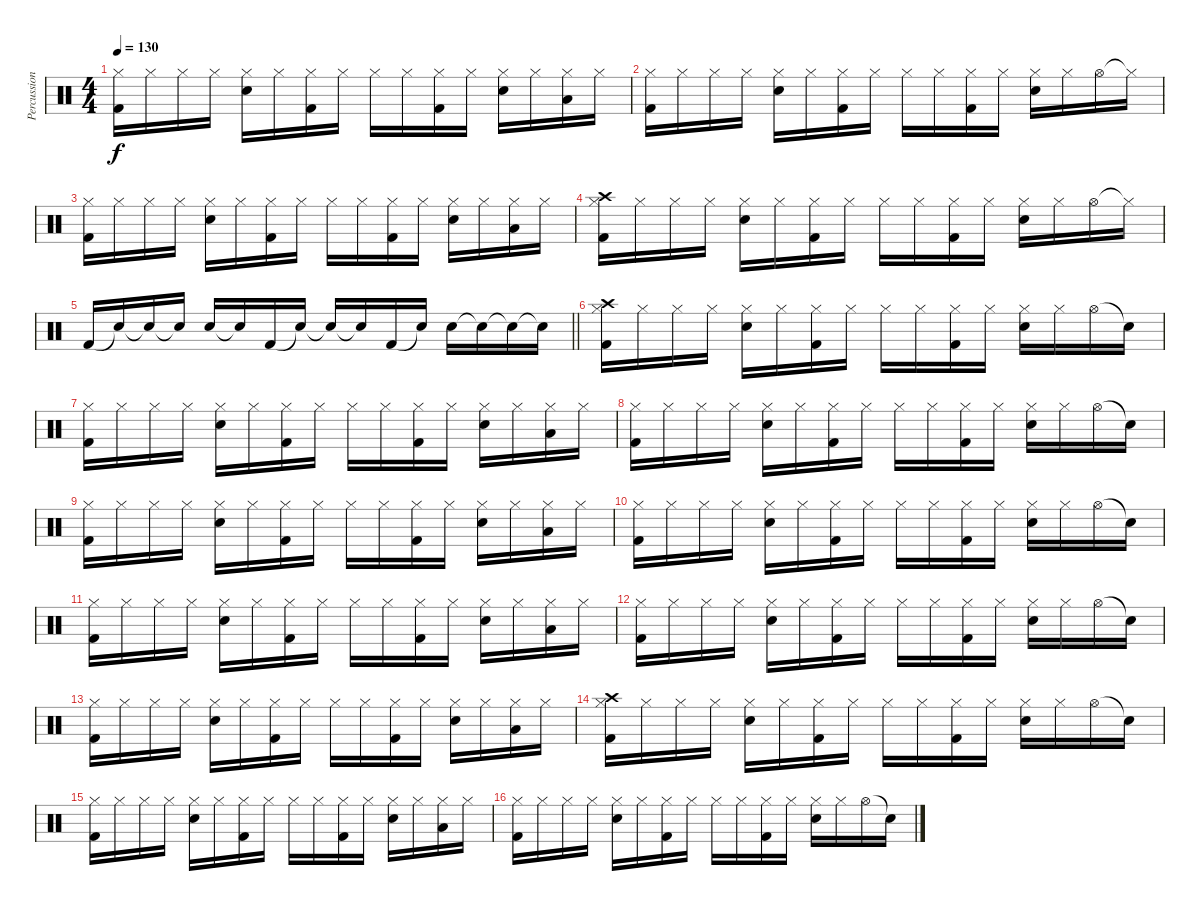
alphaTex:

\track ("Percussion" "Percussion") {instrument percussion}
\staff {score}
\articulation defaults
\ts (4 4)
\tempo 130
\clef neutral
\ks c
("Hi-Hat (closed)" "Kick (hit) 2").16{dy f} "Hi-Hat (closed)".16 "Hi-Hat (closed)".16 "Hi-Hat (closed)".16 ("Hi-Hat (closed)" "Snare (hit) 2").16 "Hi-Hat (closed)".16 ("Hi-Hat (closed)" "Kick (hit) 2").16 "Hi-Hat (closed)".16 "Hi-Hat (closed)".16 "Hi-Hat (closed)".16 ("Hi-Hat (closed)" "Kick (hit) 2").16 "Hi-Hat (closed)".16 ("Hi-Hat (closed)" "Snare (hit) 2").16 "Hi-Hat (closed)".16 ("Hi-Hat (closed)" "Low Tom (hit)").16 "Hi-Hat (closed)".16 |
("Hi-Hat (closed)" "Kick (hit) 2").16 "Hi-Hat (closed)".16 "Hi-Hat (closed)".16 "Hi-Hat (closed)".16 ("Hi-Hat (closed)" "Snare (hit) 2").16 "Hi-Hat (closed)".16 ("Hi-Hat (closed)" "Kick (hit) 2").16 "Hi-Hat (closed)".16 "Hi-Hat (closed)".16 "Hi-Hat (closed)".16 ("Hi-Hat (closed)" "Kick (hit) 2").16 "Hi-Hat (closed)".16 ("Hi-Hat (closed)" "Snare (hit) 2").16 "Hi-Hat (closed)".16 "Hi-Hat (open)".16 "Hi-Hat (closed)"{t}.16 |
("Hi-Hat (closed)" "Kick (hit) 2").16 "Hi-Hat (closed)".16 "Hi-Hat (closed)".16 "Hi-Hat (closed)".16 ("Hi-Hat (closed)" "Snare (hit) 2").16 "Hi-Hat (closed)".16 ("Hi-Hat (closed)" "Kick (hit) 2").16 "Hi-Hat (closed)".16 "Hi-Hat (closed)".16 "Hi-Hat (closed)".16 ("Hi-Hat (closed)" "Kick (hit) 2").16 "Hi-Hat (closed)".16 ("Hi-Hat (closed)" "Snare (hit) 2").16 "Hi-Hat (closed)".16 ("Hi-Hat (closed)" "Low Tom (hit)").16 "Hi-Hat (closed)".16 |
("Hi-Hat (closed)" "Crash high (hit)" "Kick (hit) 2").16 "Hi-Hat (closed)".16 "Hi-Hat (closed)".16 "Hi-Hat (closed)".16 ("Hi-Hat (closed)" "Snare (hit) 2").16 "Hi-Hat (closed)".16 ("Hi-Hat (closed)" "Kick (hit) 2").16 "Hi-Hat (closed)".16 "Hi-Hat (closed)".16 "Hi-Hat (closed)".16 ("Hi-Hat (closed)" "Kick (hit) 2").16 "Hi-Hat (closed)".16 ("Hi-Hat (closed)" "Snare (hit) 2").16 "Hi-Hat (closed)".16 "Hi-Hat (open)".16 "Hi-Hat (closed)"{t}.16 |
\barLineRight lightlight "Kick (hit) 2".16 "Snare (hit)"{t}.16 "Snare (hit)"{t}.16 "Snare (hit)"{t}.16 "Hand Clap (hit)".16 "Snare (hit)"{t}.16 "Kick (hit) 2".16 "Snare (hit)"{t}.16 "Snare (hit)"{t}.16 "Snare (hit)"{t}.16 "Kick (hit) 2".16 "Snare (hit)"{t}.16 "Hand Clap (hit)".16 "Snare (hit)"{t}.16 "Snare (hit)"{t}.16 "Snare (hit)"{t}.16
|
("Hi-Hat (closed)" "Crash high (hit)" "Kick (hit) 2").16 "Hi-Hat (closed)".16 "Hi-Hat (closed)".16 "Hi-Hat (closed)".16 ("Hi-Hat (closed)" "Snare (hit) 2").16 "Hi-Hat (closed)".16 ("Hi-Hat (closed)" "Kick (hit) 2").16 "Hi-Hat (closed)".16 "Hi-Hat (closed)".16 "Hi-Hat (closed)".16 ("Hi-Hat (closed)" "Kick (hit) 2").16 "Hi-Hat (closed)".16 ("Hi-Hat (closed)" "Snare (hit) 2").16 "Hi-Hat (closed)".16 "Hi-Hat (open)".16 "Snare (hit)"{t}.16 |
("Hi-Hat (closed)" "Kick (hit) 2").16 "Hi-Hat (closed)".16 "Hi-Hat (closed)".16 "Hi-Hat (closed)".16 ("Hi-Hat (closed)" "Snare (hit) 2").16 "Hi-Hat (closed)".16 ("Hi-Hat (closed)" "Kick (hit) 2").16 "Hi-Hat (closed)".16 "Hi-Hat (closed)".16 "Hi-Hat (closed)".16 ("Hi-Hat (closed)" "Kick (hit) 2").16 "Hi-Hat (closed)".16 ("Hi-Hat (closed)" "Snare (hit) 2").16 "Hi-Hat (closed)".16 ("Hi-Hat (closed)" "Low Tom (hit)").16 "Hi-Hat (closed)".16 |
("Hi-Hat (closed)" "Kick (hit) 2").16 "Hi-Hat (closed)".16 "Hi-Hat (closed)".16 "Hi-Hat (closed)".16 ("Hi-Hat (closed)" "Snare (hit) 2").16 "Hi-Hat (closed)".16 ("Hi-Hat (closed)" "Kick (hit) 2").16 "Hi-Hat (closed)".16 "Hi-Hat (closed)".16 "Hi-Hat (closed)".16 ("Hi-Hat (closed)" "Kick (hit) 2").16 "Hi-Hat (closed)".16 ("Hi-Hat (closed)" "Snare (hit) 2").16 "Hi-Hat (closed)".16 "Hi-Hat (open)".16 "Snare (hit)"{t}.16 |
("Hi-Hat (closed)" "Kick (hit) 2").16 "Hi-Hat (closed)".16 "Hi-Hat (closed)".16 "Hi-Hat (closed)".16 ("Hi-Hat (closed)" "Snare (hit) 2").16 "Hi-Hat (closed)".16 ("Hi-Hat (closed)" "Kick (hit) 2").16 "Hi-Hat (closed)".16 "Hi-Hat (closed)".16 "Hi-Hat (closed)".16 ("Hi-Hat (closed)" "Kick (hit) 2").16 "Hi-Hat (closed)".16 ("Hi-Hat (closed)" "Snare (hit) 2").16 "Hi-Hat (closed)".16 ("Hi-Hat (closed)" "Low Tom (hit)").16 "Hi-Hat (closed)".16 |
("Hi-Hat (closed)" "Kick (hit) 2").16 "Hi-Hat (closed)".16 "Hi-Hat (closed)".16 "Hi-Hat (closed)".16 ("Hi-Hat (closed)" "Snare (hit) 2").16 "Hi-Hat (closed)".16 ("Hi-Hat (closed)" "Kick (hit) 2").16 "Hi-Hat (closed)".16 "Hi-Hat (closed)".16 "Hi-Hat (closed)".16 ("Hi-Hat (closed)" "Kick (hit) 2").16 "Hi-Hat (closed)".16 ("Hi-Hat (closed)" "Snare (hit) 2").16 "Hi-Hat (closed)".16 "Hi-Hat (open)".16 "Snare (hit)"{t}.16 |
("Hi-Hat (closed)" "Kick (hit) 2").16 "Hi-Hat (closed)".16 "Hi-Hat (closed)".16 "Hi-Hat (closed)".16 ("Hi-Hat (closed)" "Snare (hit) 2").16 "Hi-Hat (closed)".16 ("Hi-Hat (closed)" "Kick (hit) 2").16 "Hi-Hat (closed)".16 "Hi-Hat (closed)".16 "Hi-Hat (closed)".16 ("Hi-Hat (closed)" "Kick (hit) 2").16 "Hi-Hat (closed)".16 ("Hi-Hat (closed)" "Snare (hit) 2").16 "Hi-Hat (closed)".16 ("Hi-Hat (closed)" "Low Tom (hit)").16 "Hi-Hat (closed)".16 |
("Hi-Hat (closed)" "Kick (hit) 2").16 "Hi-Hat (closed)".16 "Hi-Hat (closed)".16 "Hi-Hat (closed)".16 ("Hi-Hat (closed)" "Snare (hit) 2").16 "Hi-Hat (closed)".16 ("Hi-Hat (closed)" "Kick (hit) 2").16 "Hi-Hat (closed)".16 "Hi-Hat (closed)".16 "Hi-Hat (closed)".16 ("Hi-Hat (closed)" "Kick (hit) 2").16 "Hi-Hat (closed)".16 ("Hi-Hat (closed)" "Snare (hit) 2").16 "Hi-Hat (closed)".16 "Hi-Hat (open)".16 "Snare (hit)"{t}.16 |
("Hi-Hat (closed)" "Kick (hit) 2").16 "Hi-Hat (closed)".16 "Hi-Hat (closed)".16 "Hi-Hat (closed)".16 ("Hi-Hat (closed)" "Snare (hit) 2").16 "Hi-Hat (closed)".16 ("Hi-Hat (closed)" "Kick (hit) 2").16 "Hi-Hat (closed)".16 "Hi-Hat (closed)".16 "Hi-Hat (closed)".16 ("Hi-Hat (closed)" "Kick (hit) 2").16 "Hi-Hat (closed)".16 ("Hi-Hat (closed)" "Snare (hit) 2").16 "Hi-Hat (closed)".16 ("Hi-Hat (closed)" "Low Tom (hit)").16 "Hi-Hat (closed)".16 |
("Hi-Hat (closed)" "Crash high (hit)" "Kick (hit) 2").16 "Hi-Hat (closed)".16 "Hi-Hat (closed)".16 "Hi-Hat (closed)".16 ("Hi-Hat (closed)" "Snare (hit) 2").16 "Hi-Hat (closed)".16 ("Hi-Hat (closed)" "Kick (hit) 2").16 "Hi-Hat (closed)".16 "Hi-Hat (closed)".16 "Hi-Hat (closed)".16 ("Hi-Hat (closed)" "Kick (hit) 2").16 "Hi-Hat (closed)".16 ("Hi-Hat (closed)" "Snare (hit) 2").16 "Hi-Hat (closed)".16 "Hi-Hat (open)".16 "Snare (hit)"{t}.16 |
("Hi-Hat (closed)" "Kick (hit) 2").16 "Hi-Hat (closed)".16 "Hi-Hat (closed)".16 "Hi-Hat (closed)".16 ("Hi-Hat (closed)" "Snare (hit) 2").16 "Hi-Hat (closed)".16 ("Hi-Hat (closed)" "Kick (hit) 2").16 "Hi-Hat (closed)".16 "Hi-Hat (closed)".16 "Hi-Hat (closed)".16 ("Hi-Hat (closed)" "Kick (hit) 2").16 "Hi-Hat (closed)".16 ("Hi-Hat (closed)" "Snare (hit) 2").16 "Hi-Hat (closed)".16 ("Hi-Hat (closed)" "Low Tom (hit)").16 "Hi-Hat (closed)".16 |
("Hi-Hat (closed)" "Kick (hit) 2").16 "Hi-Hat (closed)".16 "Hi-Hat (closed)".16 "Hi-Hat (closed)".16 ("Hi-Hat (closed)" "Snare (hit) 2").16 "Hi-Hat (closed)".16 ("Hi-Hat (closed)" "Kick (hit) 2").16 "Hi-Hat (closed)".16 "Hi-Hat (closed)".16 "Hi-Hat (closed)".16 ("Hi-Hat (closed)" "Kick (hit) 2").16 "Hi-Hat (closed)".16 ("Hi-Hat (closed)" "Snare (hit) 2").16 "Hi-Hat (closed)".16 "Hi-Hat (open)".16 "Snare (hit)"{t}.16
